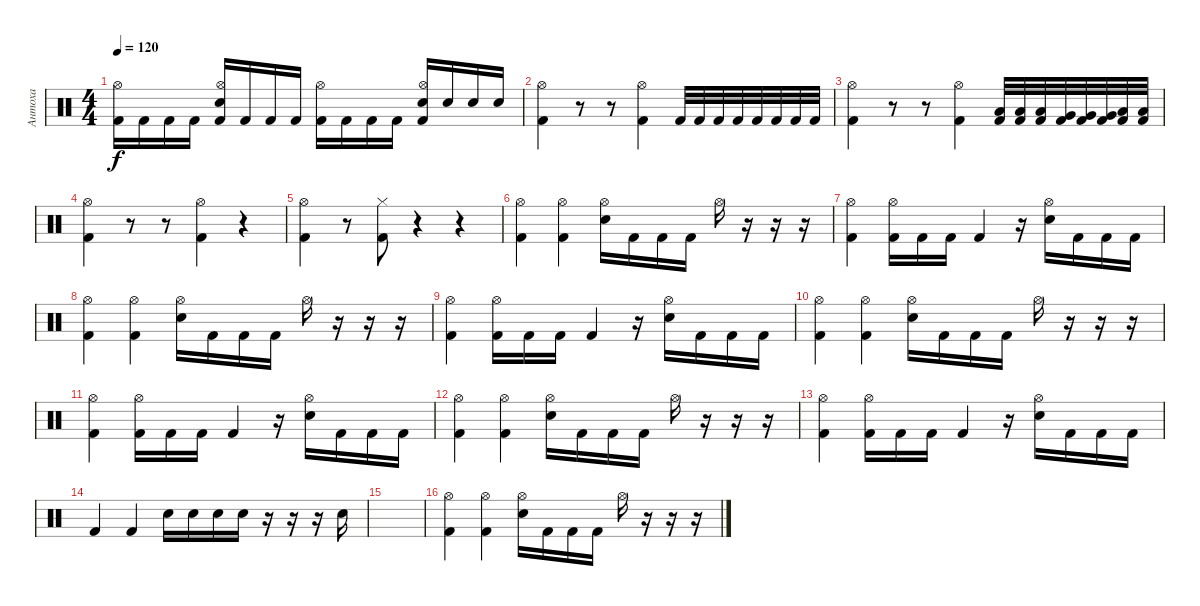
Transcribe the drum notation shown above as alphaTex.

\track ("Антоха" "Антоха") {instrument percussion}
\staff {score}
\articulation defaults
\ts (4 4)
\tempo 120
\clef neutral
\ks c
("Kick (hit) 2" "Hi-Hat (open)").16{dy f} "Kick (hit) 2".16 "Kick (hit) 2".16 "Kick (hit) 2".16 ("Kick (hit) 2" "Electric Snare (hit)" "Hi-Hat (open)").16 "Kick (hit) 2".16 "Kick (hit) 2".16 "Kick (hit) 2".16 ("Kick (hit) 2" "Hi-Hat (open)").16 "Kick (hit) 2".16 "Kick (hit) 2".16 "Kick (hit) 2".16 ("Kick (hit) 2" "Electric Snare (hit)" "Hi-Hat (open)").16 "Electric Snare (hit)".16 "Electric Snare (hit)".16 "Electric Snare (hit)".16 |
("Kick (hit) 2" "Hi-Hat (open)").4 r.8 r.8 ("Kick (hit) 2" "Hi-Hat (open)").4 "Kick (hit) 2".32 "Kick (hit) 2".32 "Kick (hit) 2".32 "Kick (hit) 2".32 "Kick (hit) 2".32 "Kick (hit) 2".32 "Kick (hit) 2".32 "Kick (hit) 2".32 |
("Kick (hit) 2" "Hi-Hat (open)").4 r.8 r.8 ("Kick (hit) 2" "Hi-Hat (open)").4 ("Kick (hit) 2" "Low Tom (hit)").32 ("Kick (hit) 2" "Low Tom (hit)").32 ("Kick (hit) 2" "Low Tom (hit)").32 ("Kick (hit) 2" "Very Low Tom (hit)").32 ("Kick (hit) 2" "Very Low Tom (hit)").32 ("Kick (hit) 2" "Very Low Tom (hit)").32 ("Kick (hit) 2" "Low Floor Tom (hit)").32 ("Kick (hit) 2" "Low Floor Tom (hit)").32 |
("Kick (hit) 2" "Hi-Hat (open)").4 r.8 r.8 ("Kick (hit) 2" "Hi-Hat (open)").4 r.4 |
("Kick (hit) 2" "Hi-Hat (open)").4 r.8 ("Kick (hit) 2" "Hi-Hat (closed)").8 r.4 r.4 |
("Kick (hit) 2" "Hi-Hat (open)").4 ("Kick (hit) 2" "Hi-Hat (open)").4 ("Electric Snare (hit)" "Hi-Hat (open)").16 "Kick (hit) 2".16 "Kick (hit) 2".16 "Kick (hit) 2".16 "Hi-Hat (open)".16 r.16 r.16 r.16 |
("Kick (hit) 2" "Hi-Hat (open)").4 ("Kick (hit) 2" "Hi-Hat (open)").16 "Kick (hit) 2".16 "Kick (hit) 2".16 "Kick (hit) 2".4 r.16 ("Electric Snare (hit)" "Hi-Hat (open)").16 "Kick (hit) 2".16 "Kick (hit) 2".16 "Kick (hit) 2".16 |
("Kick (hit) 2" "Hi-Hat (open)").4 ("Kick (hit) 2" "Hi-Hat (open)").4 ("Electric Snare (hit)" "Hi-Hat (open)").16 "Kick (hit) 2".16 "Kick (hit) 2".16 "Kick (hit) 2".16 "Hi-Hat (open)".16 r.16 r.16 r.16 |
("Kick (hit) 2" "Hi-Hat (open)").4 ("Kick (hit) 2" "Hi-Hat (open)").16 "Kick (hit) 2".16 "Kick (hit) 2".16 "Kick (hit) 2".4 r.16 ("Electric Snare (hit)" "Hi-Hat (open)").16 "Kick (hit) 2".16 "Kick (hit) 2".16 "Kick (hit) 2".16 |
("Kick (hit) 2" "Hi-Hat (open)").4 ("Kick (hit) 2" "Hi-Hat (open)").4 ("Electric Snare (hit)" "Hi-Hat (open)").16 "Kick (hit) 2".16 "Kick (hit) 2".16 "Kick (hit) 2".16 "Hi-Hat (open)".16 r.16 r.16 r.16 |
("Kick (hit) 2" "Hi-Hat (open)").4 ("Kick (hit) 2" "Hi-Hat (open)").16 "Kick (hit) 2".16 "Kick (hit) 2".16 "Kick (hit) 2".4 r.16 ("Electric Snare (hit)" "Hi-Hat (open)").16 "Kick (hit) 2".16 "Kick (hit) 2".16 "Kick (hit) 2".16 |
("Kick (hit) 2" "Hi-Hat (open)").4 ("Kick (hit) 2" "Hi-Hat (open)").4 ("Electric Snare (hit)" "Hi-Hat (open)").16 "Kick (hit) 2".16 "Kick (hit) 2".16 "Kick (hit) 2".16 "Hi-Hat (open)".16 r.16 r.16 r.16 |
("Kick (hit) 2" "Hi-Hat (open)").4 ("Kick (hit) 2" "Hi-Hat (open)").16 "Kick (hit) 2".16 "Kick (hit) 2".16 "Kick (hit) 2".4 r.16 ("Electric Snare (hit)" "Hi-Hat (open)").16 "Kick (hit) 2".16 "Kick (hit) 2".16 "Kick (hit) 2".16 |
"Kick (hit) 2".4 "Kick (hit) 2".4 "Electric Snare (hit)".16 "Electric Snare (hit)".16 "Electric Snare (hit)".16 "Electric Snare (hit)".16 r.16 r.16 r.16 "Electric Snare (hit)".16 |
|
("Kick (hit) 2" "Hi-Hat (open)").4 ("Kick (hit) 2" "Hi-Hat (open)").4 ("Electric Snare (hit)" "Hi-Hat (open)").16 "Kick (hit) 2".16 "Kick (hit) 2".16 "Kick (hit) 2".16 "Hi-Hat (open)".16 r.16 r.16 r.16
